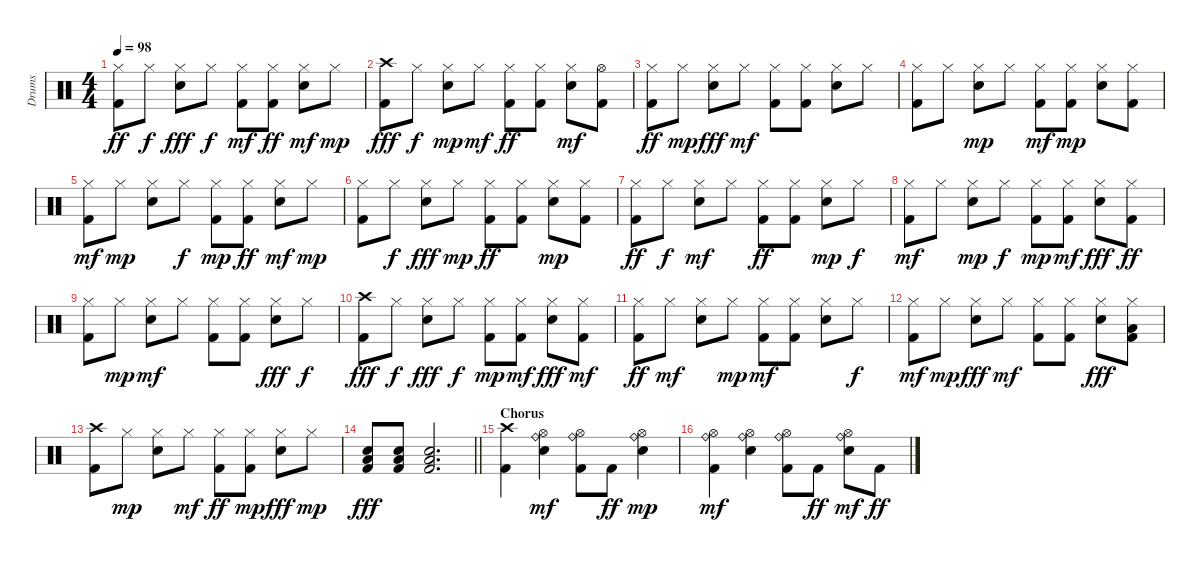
\track ("Drums" "Drums") {instrument percussion}
\staff {score}
\articulation defaults
\ts (4 4)
\tempo 98
\clef neutral
\ks c
("Kick (hit) 2" "Hi-Hat (closed)").8{dy ff} "Hi-Hat (closed)".8{dy f} ("Electric Snare (hit)" "Hi-Hat (closed)").8{dy fff} "Hi-Hat (closed)".8{dy f} ("Kick (hit) 2" "Hi-Hat (closed)").8{dy mf} ("Kick (hit) 2" "Hi-Hat (closed)").8{dy ff} ("Electric Snare (hit)" "Hi-Hat (closed)").8{dy mf} "Hi-Hat (closed)".8{dy mp} |
("Kick (hit) 2" "Crash high (hit)").8{dy fff} "Hi-Hat (closed)".8{dy f} ("Electric Snare (hit)" "Hi-Hat (closed)").8{dy mp} "Hi-Hat (closed)".8{dy mf} ("Kick (hit) 2" "Hi-Hat (closed)").8{dy ff} ("Kick (hit) 2" "Hi-Hat (closed)").8 ("Electric Snare (hit)" "Hi-Hat (closed)").8{dy mf} ("Kick (hit) 2" "Hi-Hat (open)").8 |
("Kick (hit) 2" "Hi-Hat (closed)").8{dy ff} "Hi-Hat (closed)".8{dy mp} ("Electric Snare (hit)" "Hi-Hat (closed)").8{dy fff} "Hi-Hat (closed)".8{dy mf} ("Kick (hit) 2" "Hi-Hat (closed)").8 ("Kick (hit) 2" "Hi-Hat (closed)").8 ("Electric Snare (hit)" "Hi-Hat (closed)").8 "Hi-Hat (closed)".8 |
("Kick (hit) 2" "Hi-Hat (closed)").8 "Hi-Hat (closed)".8 ("Electric Snare (hit)" "Hi-Hat (closed)").8{dy mp} "Hi-Hat (closed)".8 ("Kick (hit) 2" "Hi-Hat (closed)").8{dy mf} ("Kick (hit) 2" "Hi-Hat (closed)").8{dy mp} ("Electric Snare (hit)" "Hi-Hat (closed)").8 ("Kick (hit) 2" "Hi-Hat (closed)").8 |
("Kick (hit) 2" "Hi-Hat (closed)").8{dy mf} "Hi-Hat (closed)".8{dy mp} ("Electric Snare (hit)" "Hi-Hat (closed)").8 "Hi-Hat (closed)".8{dy f} ("Kick (hit) 2" "Hi-Hat (closed)").8{dy mp} ("Kick (hit) 2" "Hi-Hat (closed)").8{dy ff} ("Electric Snare (hit)" "Hi-Hat (closed)").8{dy mf} "Hi-Hat (closed)".8{dy mp} |
("Kick (hit) 2" "Hi-Hat (closed)").8 "Hi-Hat (closed)".8{dy f} ("Electric Snare (hit)" "Hi-Hat (closed)").8{dy fff} "Hi-Hat (closed)".8{dy mp} ("Kick (hit) 2" "Hi-Hat (closed)").8{dy ff} ("Kick (hit) 2" "Hi-Hat (closed)").8 ("Electric Snare (hit)" "Hi-Hat (closed)").8{dy mp} ("Kick (hit) 2" "Hi-Hat (closed)").8 |
("Kick (hit) 2" "Hi-Hat (closed)").8{dy ff} "Hi-Hat (closed)".8{dy f} ("Electric Snare (hit)" "Hi-Hat (closed)").8{dy mf} "Hi-Hat (closed)".8 ("Kick (hit) 2" "Hi-Hat (closed)").8{dy ff} ("Kick (hit) 2" "Hi-Hat (closed)").8 ("Electric Snare (hit)" "Hi-Hat (closed)").8{dy mp} "Hi-Hat (closed)".8{dy f} |
("Kick (hit) 2" "Hi-Hat (closed)").8{dy mf} "Hi-Hat (closed)".8 ("Electric Snare (hit)" "Hi-Hat (closed)").8{dy mp} "Hi-Hat (closed)".8{dy f} ("Kick (hit) 2" "Hi-Hat (closed)").8{dy mp} ("Kick (hit) 2" "Hi-Hat (closed)").8{dy mf} ("Electric Snare (hit)" "Hi-Hat (closed)").8{dy fff} ("Kick (hit) 2" "Hi-Hat (closed)").8{dy ff} |
("Kick (hit) 2" "Hi-Hat (closed)").8 "Hi-Hat (closed)".8{dy mp} ("Electric Snare (hit)" "Hi-Hat (closed)").8{dy mf} "Hi-Hat (closed)".8 ("Kick (hit) 2" "Hi-Hat (closed)").8 ("Kick (hit) 2" "Hi-Hat (closed)").8 ("Electric Snare (hit)" "Hi-Hat (closed)").8{dy fff} "Hi-Hat (closed)".8{dy f} |
("Kick (hit) 2" "Crash high (hit)").8{dy fff} "Hi-Hat (closed)".8{dy f} ("Electric Snare (hit)" "Hi-Hat (closed)").8{dy fff} "Hi-Hat (closed)".8{dy f} ("Kick (hit) 2" "Hi-Hat (closed)").8{dy mp} ("Kick (hit) 2" "Hi-Hat (closed)").8{dy mf} ("Electric Snare (hit)" "Hi-Hat (closed)").8{dy fff} ("Kick (hit) 2" "Hi-Hat (closed)").8{dy mf} |
("Kick (hit) 2" "Hi-Hat (closed)").8{dy ff} "Hi-Hat (closed)".8{dy mf} ("Electric Snare (hit)" "Hi-Hat (closed)").8 "Hi-Hat (closed)".8{dy mp} ("Kick (hit) 2" "Hi-Hat (closed)").8{dy mf} ("Kick (hit) 2" "Hi-Hat (closed)").8 ("Electric Snare (hit)" "Hi-Hat (closed)").8 "Hi-Hat (closed)".8{dy f} |
("Kick (hit) 2" "Hi-Hat (closed)").8{dy mf} "Hi-Hat (closed)".8{dy mp} ("Electric Snare (hit)" "Hi-Hat (closed)").8{dy fff} "Hi-Hat (closed)".8{dy mf} ("Kick (hit) 2" "Hi-Hat (closed)").8 ("Kick (hit) 2" "Hi-Hat (closed)").8 ("Electric Snare (hit)" "Hi-Hat (closed)").8{dy fff} ("Kick (hit) 2" "Hi-Hat (closed)" "Low Tom (hit)").8 |
("Kick (hit) 2" "Crash high (hit)").8 "Hi-Hat (closed)".8{dy mp} ("Electric Snare (hit)" "Hi-Hat (closed)").8 "Hi-Hat (closed)".8{dy mf} ("Kick (hit) 2" "Hi-Hat (closed)").8{dy ff} ("Kick (hit) 2" "Hi-Hat (closed)").8{dy mp} ("Electric Snare (hit)" "Hi-Hat (closed)").8{dy fff} "Hi-Hat (closed)".8{dy mp} |
\barLineRight lightlight
("Kick (hit) 2" "Electric Snare (hit)" "Low Floor Tom (hit)").8{dy fff} ("Kick (hit) 2" "Electric Snare (hit)" "Low Floor Tom (hit)").8 ("Kick (hit) 2" "Electric Snare (hit)" "Low Floor Tom (hit)").2{d} |
\section ("" "Chorus")
("Kick (hit) 2" "Crash high (hit)").4 ("Electric Snare (hit)" "Hi-Hat (open)" "Ride (bell)").4{dy mf} ("Kick (hit) 2" "Hi-Hat (open)" "Ride (bell)").8 "Kick (hit) 2".8{dy ff} ("Electric Snare (hit)" "Hi-Hat (open)" "Ride (bell)").4{dy mp} |
("Kick (hit) 2" "Hi-Hat (open)" "Ride (bell)").4{dy mf} ("Electric Snare (hit)" "Hi-Hat (open)" "Ride (bell)").4 ("Kick (hit) 2" "Hi-Hat (open)" "Ride (bell)").8 "Kick (hit) 2".8{dy ff} ("Electric Snare (hit)" "Hi-Hat (open)" "Ride (bell)").8{dy mf} "Kick (hit) 2".8{dy ff}
